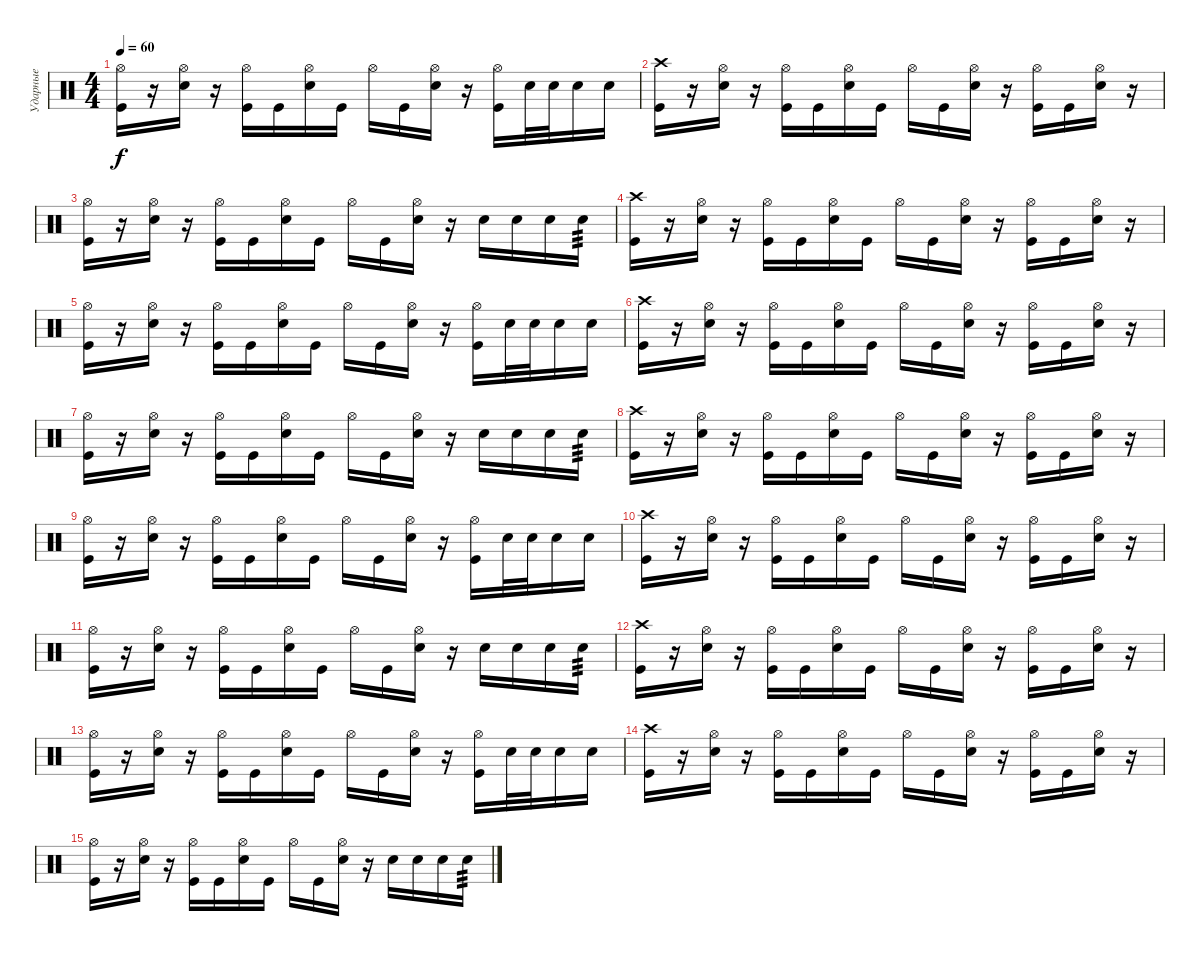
\track ("Ударные" "Ударные") {instrument percussion}
\staff {score}
\articulation defaults
\ts (4 4)
\tempo 60
\clef neutral
\ks c
("Hi-Hat (open)" "Kick (hit)").16{dy f} r.16 ("Hi-Hat (open)" "Electric Snare (hit)").16 r.16 ("Hi-Hat (open)" "Kick (hit)").16 "Kick (hit)".16 ("Hi-Hat (open)" "Electric Snare (hit)").16 "Kick (hit)".16 "Hi-Hat (open)".16 "Kick (hit)".16 ("Hi-Hat (open)" "Electric Snare (hit)").16 r.16 ("Hi-Hat (open)" "Kick (hit)").16 "Electric Snare (hit)".32 "Electric Snare (hit)".32 "Electric Snare (hit)".16 "Electric Snare (hit)".16 |
("Crash high (hit)" "Kick (hit)").16 r.16 ("Hi-Hat (open)" "Electric Snare (hit)").16 r.16 ("Hi-Hat (open)" "Kick (hit)").16 "Kick (hit)".16 ("Hi-Hat (open)" "Electric Snare (hit)").16 "Kick (hit)".16 "Hi-Hat (open)".16 "Kick (hit)".16 ("Hi-Hat (open)" "Electric Snare (hit)").16 r.16 ("Hi-Hat (open)" "Kick (hit)").16 "Kick (hit)".16 ("Hi-Hat (open)" "Electric Snare (hit)").16 r.16 |
("Hi-Hat (open)" "Kick (hit)").16 r.16 ("Hi-Hat (open)" "Electric Snare (hit)").16 r.16 ("Hi-Hat (open)" "Kick (hit)").16 "Kick (hit)".16 ("Hi-Hat (open)" "Electric Snare (hit)").16 "Kick (hit)".16 "Hi-Hat (open)".16 "Kick (hit)".16 ("Hi-Hat (open)" "Electric Snare (hit)").16 r.16 "Electric Snare (hit)".16 "Electric Snare (hit)".16 "Electric Snare (hit)".16 "Electric Snare (hit)".16{tp 3} |
("Crash high (hit)" "Kick (hit)").16 r.16 ("Hi-Hat (open)" "Electric Snare (hit)").16 r.16 ("Hi-Hat (open)" "Kick (hit)").16 "Kick (hit)".16 ("Hi-Hat (open)" "Electric Snare (hit)").16 "Kick (hit)".16 "Hi-Hat (open)".16 "Kick (hit)".16 ("Hi-Hat (open)" "Electric Snare (hit)").16 r.16 ("Hi-Hat (open)" "Kick (hit)").16 "Kick (hit)".16 ("Hi-Hat (open)" "Electric Snare (hit)").16 r.16 |
("Hi-Hat (open)" "Kick (hit)").16 r.16 ("Hi-Hat (open)" "Electric Snare (hit)").16 r.16 ("Hi-Hat (open)" "Kick (hit)").16 "Kick (hit)".16 ("Hi-Hat (open)" "Electric Snare (hit)").16 "Kick (hit)".16 "Hi-Hat (open)".16 "Kick (hit)".16 ("Hi-Hat (open)" "Electric Snare (hit)").16 r.16 ("Hi-Hat (open)" "Kick (hit)").16 "Electric Snare (hit)".32 "Electric Snare (hit)".32 "Electric Snare (hit)".16 "Electric Snare (hit)".16 |
("Crash high (hit)" "Kick (hit)").16 r.16 ("Hi-Hat (open)" "Electric Snare (hit)").16 r.16 ("Hi-Hat (open)" "Kick (hit)").16 "Kick (hit)".16 ("Hi-Hat (open)" "Electric Snare (hit)").16 "Kick (hit)".16 "Hi-Hat (open)".16 "Kick (hit)".16 ("Hi-Hat (open)" "Electric Snare (hit)").16 r.16 ("Hi-Hat (open)" "Kick (hit)").16 "Kick (hit)".16 ("Hi-Hat (open)" "Electric Snare (hit)").16 r.16 |
("Hi-Hat (open)" "Kick (hit)").16 r.16 ("Hi-Hat (open)" "Electric Snare (hit)").16 r.16 ("Hi-Hat (open)" "Kick (hit)").16 "Kick (hit)".16 ("Hi-Hat (open)" "Electric Snare (hit)").16 "Kick (hit)".16 "Hi-Hat (open)".16 "Kick (hit)".16 ("Hi-Hat (open)" "Electric Snare (hit)").16 r.16 "Electric Snare (hit)".16 "Electric Snare (hit)".16 "Electric Snare (hit)".16 "Electric Snare (hit)".16{tp 3} |
("Crash high (hit)" "Kick (hit)").16 r.16 ("Hi-Hat (open)" "Electric Snare (hit)").16 r.16 ("Hi-Hat (open)" "Kick (hit)").16 "Kick (hit)".16 ("Hi-Hat (open)" "Electric Snare (hit)").16 "Kick (hit)".16 "Hi-Hat (open)".16 "Kick (hit)".16 ("Hi-Hat (open)" "Electric Snare (hit)").16 r.16 ("Hi-Hat (open)" "Kick (hit)").16 "Kick (hit)".16 ("Hi-Hat (open)" "Electric Snare (hit)").16 r.16 |
("Hi-Hat (open)" "Kick (hit)").16 r.16 ("Hi-Hat (open)" "Electric Snare (hit)").16 r.16 ("Hi-Hat (open)" "Kick (hit)").16 "Kick (hit)".16 ("Hi-Hat (open)" "Electric Snare (hit)").16 "Kick (hit)".16 "Hi-Hat (open)".16 "Kick (hit)".16 ("Hi-Hat (open)" "Electric Snare (hit)").16 r.16 ("Hi-Hat (open)" "Kick (hit)").16 "Electric Snare (hit)".32 "Electric Snare (hit)".32 "Electric Snare (hit)".16 "Electric Snare (hit)".16 |
("Crash high (hit)" "Kick (hit)").16 r.16 ("Hi-Hat (open)" "Electric Snare (hit)").16 r.16 ("Hi-Hat (open)" "Kick (hit)").16 "Kick (hit)".16 ("Hi-Hat (open)" "Electric Snare (hit)").16 "Kick (hit)".16 "Hi-Hat (open)".16 "Kick (hit)".16 ("Hi-Hat (open)" "Electric Snare (hit)").16 r.16 ("Hi-Hat (open)" "Kick (hit)").16 "Kick (hit)".16 ("Hi-Hat (open)" "Electric Snare (hit)").16 r.16 |
("Hi-Hat (open)" "Kick (hit)").16 r.16 ("Hi-Hat (open)" "Electric Snare (hit)").16 r.16 ("Hi-Hat (open)" "Kick (hit)").16 "Kick (hit)".16 ("Hi-Hat (open)" "Electric Snare (hit)").16 "Kick (hit)".16 "Hi-Hat (open)".16 "Kick (hit)".16 ("Hi-Hat (open)" "Electric Snare (hit)").16 r.16 "Electric Snare (hit)".16 "Electric Snare (hit)".16 "Electric Snare (hit)".16 "Electric Snare (hit)".16{tp 3} |
("Crash high (hit)" "Kick (hit)").16 r.16 ("Hi-Hat (open)" "Electric Snare (hit)").16 r.16 ("Hi-Hat (open)" "Kick (hit)").16 "Kick (hit)".16 ("Hi-Hat (open)" "Electric Snare (hit)").16 "Kick (hit)".16 "Hi-Hat (open)".16 "Kick (hit)".16 ("Hi-Hat (open)" "Electric Snare (hit)").16 r.16 ("Hi-Hat (open)" "Kick (hit)").16 "Kick (hit)".16 ("Hi-Hat (open)" "Electric Snare (hit)").16 r.16 |
("Hi-Hat (open)" "Kick (hit)").16 r.16 ("Hi-Hat (open)" "Electric Snare (hit)").16 r.16 ("Hi-Hat (open)" "Kick (hit)").16 "Kick (hit)".16 ("Hi-Hat (open)" "Electric Snare (hit)").16 "Kick (hit)".16 "Hi-Hat (open)".16 "Kick (hit)".16 ("Hi-Hat (open)" "Electric Snare (hit)").16 r.16 ("Hi-Hat (open)" "Kick (hit)").16 "Electric Snare (hit)".32 "Electric Snare (hit)".32 "Electric Snare (hit)".16 "Electric Snare (hit)".16 |
("Crash high (hit)" "Kick (hit)").16 r.16 ("Hi-Hat (open)" "Electric Snare (hit)").16 r.16 ("Hi-Hat (open)" "Kick (hit)").16 "Kick (hit)".16 ("Hi-Hat (open)" "Electric Snare (hit)").16 "Kick (hit)".16 "Hi-Hat (open)".16 "Kick (hit)".16 ("Hi-Hat (open)" "Electric Snare (hit)").16 r.16 ("Hi-Hat (open)" "Kick (hit)").16 "Kick (hit)".16 ("Hi-Hat (open)" "Electric Snare (hit)").16 r.16 |
("Hi-Hat (open)" "Kick (hit)").16 r.16 ("Hi-Hat (open)" "Electric Snare (hit)").16 r.16 ("Hi-Hat (open)" "Kick (hit)").16 "Kick (hit)".16 ("Hi-Hat (open)" "Electric Snare (hit)").16 "Kick (hit)".16 "Hi-Hat (open)".16 "Kick (hit)".16 ("Hi-Hat (open)" "Electric Snare (hit)").16 r.16 "Electric Snare (hit)".16 "Electric Snare (hit)".16 "Electric Snare (hit)".16 "Electric Snare (hit)".16{tp 3}
